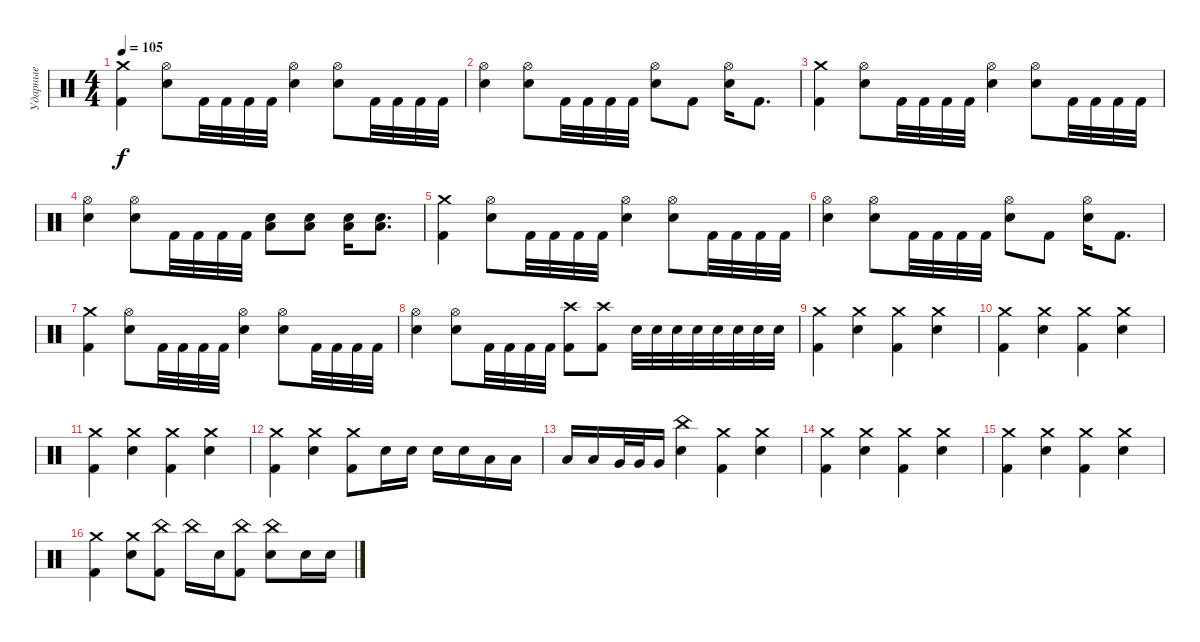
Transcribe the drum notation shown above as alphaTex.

\track ("Ударные" "Ударные") {instrument percussion}
\staff {score}
\articulation defaults
\ts (4 4)
\tempo 105
\clef neutral
\ks c
("Crash medium (hit)" "Kick (hit) 2").4{dy f} ("Hi-Hat (open)" "Electric Snare (hit)").8 "Kick (hit) 2".32 "Kick (hit) 2".32 "Kick (hit) 2".32 "Kick (hit) 2".32 ("Hi-Hat (open)" "Electric Snare (hit)").4 ("Hi-Hat (open)" "Electric Snare (hit)").8 "Kick (hit) 2".32 "Kick (hit) 2".32 "Kick (hit) 2".32 "Kick (hit) 2".32 |
("Hi-Hat (open)" "Electric Snare (hit)").4 ("Hi-Hat (open)" "Electric Snare (hit)").8 "Kick (hit) 2".32 "Kick (hit) 2".32 "Kick (hit) 2".32 "Kick (hit) 2".32 ("Hi-Hat (open)" "Electric Snare (hit)").8 "Kick (hit) 2".8 ("Hi-Hat (open)" "Electric Snare (hit)").16 "Kick (hit) 2".8{d} |
("Crash medium (hit)" "Kick (hit) 2").4 ("Hi-Hat (open)" "Electric Snare (hit)").8 "Kick (hit) 2".32 "Kick (hit) 2".32 "Kick (hit) 2".32 "Kick (hit) 2".32 ("Hi-Hat (open)" "Electric Snare (hit)").4 ("Hi-Hat (open)" "Electric Snare (hit)").8 "Kick (hit) 2".32 "Kick (hit) 2".32 "Kick (hit) 2".32 "Kick (hit) 2".32 |
("Hi-Hat (open)" "Electric Snare (hit)").4 ("Hi-Hat (open)" "Electric Snare (hit)").8 "Kick (hit) 2".32 "Kick (hit) 2".32 "Kick (hit) 2".32 "Kick (hit) 2".32 ("Snare (hit) 2" "Low Tom (hit)").8 ("Snare (hit) 2" "Low Tom (hit)").8 ("Snare (hit) 2" "Low Tom (hit)").16 ("Snare (hit) 2" "Low Tom (hit)").8{d} |
("Crash medium (hit)" "Kick (hit) 2").4 ("Hi-Hat (open)" "Electric Snare (hit)").8 "Kick (hit) 2".32 "Kick (hit) 2".32 "Kick (hit) 2".32 "Kick (hit) 2".32 ("Hi-Hat (open)" "Electric Snare (hit)").4 ("Hi-Hat (open)" "Electric Snare (hit)").8 "Kick (hit) 2".32 "Kick (hit) 2".32 "Kick (hit) 2".32 "Kick (hit) 2".32 |
("Hi-Hat (open)" "Electric Snare (hit)").4 ("Hi-Hat (open)" "Electric Snare (hit)").8 "Kick (hit) 2".32 "Kick (hit) 2".32 "Kick (hit) 2".32 "Kick (hit) 2".32 ("Hi-Hat (open)" "Electric Snare (hit)").8 "Kick (hit) 2".8 ("Hi-Hat (open)" "Electric Snare (hit)").16 "Kick (hit) 2".8{d} |
("Crash medium (hit)" "Kick (hit) 2").4 ("Hi-Hat (open)" "Electric Snare (hit)").8 "Kick (hit) 2".32 "Kick (hit) 2".32 "Kick (hit) 2".32 "Kick (hit) 2".32 ("Hi-Hat (open)" "Electric Snare (hit)").4 ("Hi-Hat (open)" "Electric Snare (hit)").8 "Kick (hit) 2".32 "Kick (hit) 2".32 "Kick (hit) 2".32 "Kick (hit) 2".32 |
("Hi-Hat (open)" "Electric Snare (hit)").4 ("Hi-Hat (open)" "Electric Snare (hit)").8 "Kick (hit) 2".32 "Kick (hit) 2".32 "Kick (hit) 2".32 "Kick (hit) 2".32 ("Crash high (hit)" "Kick (hit) 2").8 ("Crash high (hit)" "Kick (hit) 2").8 "Electric Snare (hit)".32 "Electric Snare (hit)".32 "Electric Snare (hit)".32 "Electric Snare (hit)".32 "Electric Snare (hit)".32 "Electric Snare (hit)".32 "Electric Snare (hit)".32 "Electric Snare (hit)".32 |
("Crash medium (hit)" "Kick (hit) 2").4 ("Crash medium (hit)" "Electric Snare (hit)").4 ("Crash medium (hit)" "Kick (hit) 2").4 ("Crash medium (hit)" "Electric Snare (hit)").4 |
("Crash medium (hit)" "Kick (hit) 2").4 ("Crash medium (hit)" "Electric Snare (hit)").4 ("Crash medium (hit)" "Kick (hit) 2").4 ("Crash medium (hit)" "Electric Snare (hit)").4 |
("Crash medium (hit)" "Kick (hit) 2").4 ("Crash medium (hit)" "Electric Snare (hit)").4 ("Crash medium (hit)" "Kick (hit) 2").4 ("Crash medium (hit)" "Electric Snare (hit)").4 |
("Crash medium (hit)" "Kick (hit) 2").4 ("Crash medium (hit)" "Electric Snare (hit)").4 ("Crash medium (hit)" "Kick (hit) 2").8 "Electric Snare (hit)".16 "Electric Snare (hit)".16 "Electric Snare (hit)".16 "Electric Snare (hit)".16 "Low Tom (hit)".16 "Low Tom (hit)".16 |
"Low Tom (hit)".16 "Low Tom (hit)".16 "Very Low Tom (hit)".32 "Very Low Tom (hit)".32 "Very Low Tom (hit)".16 ("China (hit)" "Electric Snare (hit)").4 ("Crash medium (hit)" "Kick (hit) 2").4 ("Crash medium (hit)" "Electric Snare (hit)").4 |
("Crash medium (hit)" "Kick (hit) 2").4 ("Crash medium (hit)" "Electric Snare (hit)").4 ("Crash medium (hit)" "Kick (hit) 2").4 ("Crash medium (hit)" "Electric Snare (hit)").4 |
("Crash medium (hit)" "Kick (hit) 2").4 ("Crash medium (hit)" "Electric Snare (hit)").4 ("Crash medium (hit)" "Kick (hit) 2").4 ("Crash medium (hit)" "Electric Snare (hit)").4 |
("Crash medium (hit)" "Kick (hit) 2").4 ("Crash medium (hit)" "Electric Snare (hit)").8 ("China (hit)" "Kick (hit) 2").8 "China (hit)".16 "Electric Snare (hit)".16 ("China (hit)" "Kick (hit) 2").8 ("China (hit)" "Electric Snare (hit)").8 "Electric Snare (hit)".16 "Electric Snare (hit)".16
